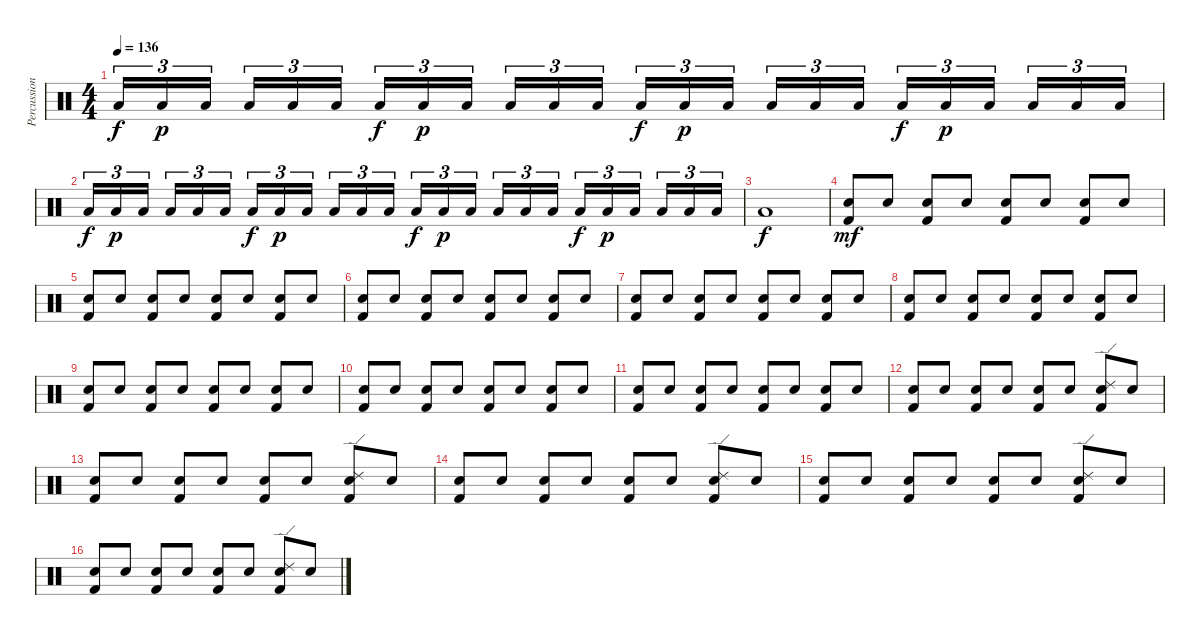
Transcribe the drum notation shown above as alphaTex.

\track ("Percussions" "Percussion") {instrument percussion}
\staff {score}
\articulation defaults
\ts (4 4)
\tempo 136
\clef neutral
\ks c "Low Floor Tom (hit)".16{tu (3 2) dy f} "Low Floor Tom (hit)".16{tu (3 2) dy p} "Low Floor Tom (hit)".16{tu (3 2)} "Low Floor Tom (hit)".16{tu (3 2)} "Low Floor Tom (hit)".16{tu (3 2)} "Low Floor Tom (hit)".16{tu (3 2)} "Low Floor Tom (hit)".16{tu (3 2) dy f} "Low Floor Tom (hit)".16{tu (3 2) dy p} "Low Floor Tom (hit)".16{tu (3 2)} "Low Floor Tom (hit)".16{tu (3 2)} "Low Floor Tom (hit)".16{tu (3 2)} "Low Floor Tom (hit)".16{tu (3 2)} "Low Floor Tom (hit)".16{tu (3 2) dy f} "Low Floor Tom (hit)".16{tu (3 2) dy p} "Low Floor Tom (hit)".16{tu (3 2)} "Low Floor Tom (hit)".16{tu (3 2)} "Low Floor Tom (hit)".16{tu (3 2)} "Low Floor Tom (hit)".16{tu (3 2)} "Low Floor Tom (hit)".16{tu (3 2) dy f} "Low Floor Tom (hit)".16{tu (3 2) dy p} "Low Floor Tom (hit)".16{tu (3 2)} "Low Floor Tom (hit)".16{tu (3 2)} "Low Floor Tom (hit)".16{tu (3 2)} "Low Floor Tom (hit)".16{tu (3 2)}
|
"Low Floor Tom (hit)".16{tu (3 2) dy f} "Low Floor Tom (hit)".16{tu (3 2) dy p} "Low Floor Tom (hit)".16{tu (3 2)} "Low Floor Tom (hit)".16{tu (3 2)} "Low Floor Tom (hit)".16{tu (3 2)} "Low Floor Tom (hit)".16{tu (3 2)} "Low Floor Tom (hit)".16{tu (3 2) dy f} "Low Floor Tom (hit)".16{tu (3 2) dy p} "Low Floor Tom (hit)".16{tu (3 2)} "Low Floor Tom (hit)".16{tu (3 2)} "Low Floor Tom (hit)".16{tu (3 2)} "Low Floor Tom (hit)".16{tu (3 2)} "Low Floor Tom (hit)".16{tu (3 2) dy f} "Low Floor Tom (hit)".16{tu (3 2) dy p} "Low Floor Tom (hit)".16{tu (3 2)} "Low Floor Tom (hit)".16{tu (3 2)} "Low Floor Tom (hit)".16{tu (3 2)} "Low Floor Tom (hit)".16{tu (3 2)} "Low Floor Tom (hit)".16{tu (3 2) dy f} "Low Floor Tom (hit)".16{tu (3 2) dy p} "Low Floor Tom (hit)".16{tu (3 2)} "Low Floor Tom (hit)".16{tu (3 2)} "Low Floor Tom (hit)".16{tu (3 2)} "Low Floor Tom (hit)".16{tu (3 2)} |
"Low Floor Tom (hit)".1{dy f} |
("Kick (hit) 2" "Snare (hit) 2").8{dy mf} "Snare (hit) 2".8 ("Kick (hit) 2" "Snare (hit) 2").8 "Snare (hit) 2".8 ("Kick (hit) 2" "Snare (hit) 2").8 "Snare (hit) 2".8 ("Kick (hit) 2" "Snare (hit) 2").8 "Snare (hit) 2".8 |
("Kick (hit) 2" "Snare (hit) 2").8 "Snare (hit) 2".8 ("Kick (hit) 2" "Snare (hit) 2").8 "Snare (hit) 2".8 ("Kick (hit) 2" "Snare (hit) 2").8 "Snare (hit) 2".8 ("Kick (hit) 2" "Snare (hit) 2").8 "Snare (hit) 2".8 |
("Kick (hit) 2" "Snare (hit) 2").8 "Snare (hit) 2".8 ("Kick (hit) 2" "Snare (hit) 2").8 "Snare (hit) 2".8 ("Kick (hit) 2" "Snare (hit) 2").8 "Snare (hit) 2".8 ("Kick (hit) 2" "Snare (hit) 2").8 "Snare (hit) 2".8 |
("Kick (hit) 2" "Snare (hit) 2").8 "Snare (hit) 2".8 ("Kick (hit) 2" "Snare (hit) 2").8 "Snare (hit) 2".8 ("Kick (hit) 2" "Snare (hit) 2").8 "Snare (hit) 2".8 ("Kick (hit) 2" "Snare (hit) 2").8 "Snare (hit) 2".8 |
("Kick (hit) 2" "Snare (hit) 2").8 "Snare (hit) 2".8 ("Kick (hit) 2" "Snare (hit) 2").8 "Snare (hit) 2".8 ("Kick (hit) 2" "Snare (hit) 2").8 "Snare (hit) 2".8 ("Kick (hit) 2" "Snare (hit) 2").8 "Snare (hit) 2".8 |
("Kick (hit) 2" "Snare (hit) 2").8 "Snare (hit) 2".8 ("Kick (hit) 2" "Snare (hit) 2").8 "Snare (hit) 2".8 ("Kick (hit) 2" "Snare (hit) 2").8 "Snare (hit) 2".8 ("Kick (hit) 2" "Snare (hit) 2").8 "Snare (hit) 2".8 |
("Kick (hit) 2" "Snare (hit) 2").8 "Snare (hit) 2".8 ("Kick (hit) 2" "Snare (hit) 2").8 "Snare (hit) 2".8 ("Kick (hit) 2" "Snare (hit) 2").8 "Snare (hit) 2".8 ("Kick (hit) 2" "Snare (hit) 2").8 "Snare (hit) 2".8 |
("Kick (hit) 2" "Snare (hit) 2").8 "Snare (hit) 2".8 ("Kick (hit) 2" "Snare (hit) 2").8 "Snare (hit) 2".8 ("Kick (hit) 2" "Snare (hit) 2").8 "Snare (hit) 2".8 ("Kick (hit) 2" "Snare (hit) 2").8 "Snare (hit) 2".8 |
("Kick (hit) 2" "Snare (hit) 2").8 "Snare (hit) 2".8 ("Kick (hit) 2" "Snare (hit) 2").8 "Snare (hit) 2".8 ("Kick (hit) 2" "Snare (hit) 2").8 "Snare (hit) 2".8 ("Kick (hit) 2" "Snare (hit) 2" "Ride (edge) 2").8 "Snare (hit) 2".8 |
("Kick (hit) 2" "Snare (hit) 2").8 "Snare (hit) 2".8 ("Kick (hit) 2" "Snare (hit) 2").8 "Snare (hit) 2".8 ("Kick (hit) 2" "Snare (hit) 2").8 "Snare (hit) 2".8 ("Kick (hit) 2" "Snare (hit) 2" "Ride (edge) 2").8 "Snare (hit) 2".8 |
("Kick (hit) 2" "Snare (hit) 2").8 "Snare (hit) 2".8 ("Kick (hit) 2" "Snare (hit) 2").8 "Snare (hit) 2".8 ("Kick (hit) 2" "Snare (hit) 2").8 "Snare (hit) 2".8 ("Kick (hit) 2" "Snare (hit) 2" "Ride (edge) 2").8 "Snare (hit) 2".8 |
("Kick (hit) 2" "Snare (hit) 2").8 "Snare (hit) 2".8 ("Kick (hit) 2" "Snare (hit) 2").8 "Snare (hit) 2".8 ("Kick (hit) 2" "Snare (hit) 2").8 "Snare (hit) 2".8 ("Kick (hit) 2" "Snare (hit) 2" "Ride (edge) 2").8 "Snare (hit) 2".8 |
("Kick (hit) 2" "Snare (hit) 2").8 "Snare (hit) 2".8 ("Kick (hit) 2" "Snare (hit) 2").8 "Snare (hit) 2".8 ("Kick (hit) 2" "Snare (hit) 2").8 "Snare (hit) 2".8 ("Kick (hit) 2" "Snare (hit) 2" "Ride (edge) 2").8 "Snare (hit) 2".8
